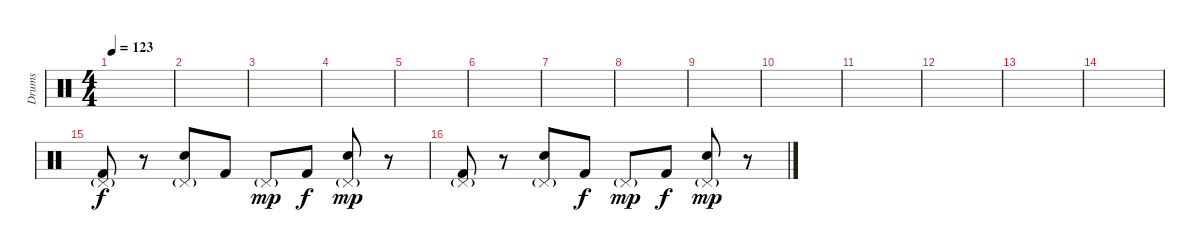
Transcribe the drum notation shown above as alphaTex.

\track ("Drums" "Drums") {instrument percussion}
\staff {score}
\articulation defaults
\ts (4 4)
\tempo 123
\clef neutral
\ks c
|
|
|
|
|
|
|
|
|
|
|
|
|
|
("Pedal Hi-Hat (hit)"{g} "Kick (hit) 2").8 r.8 ("Pedal Hi-Hat (hit)"{g} "Snare (hit) 2").8 "Kick (hit) 2".8{dy f} "Pedal Hi-Hat (hit)"{g}.8{dy mp} "Kick (hit) 2".8{dy f} ("Pedal Hi-Hat (hit)"{g} "Snare (hit) 2").8{dy mp} r.8 |
("Pedal Hi-Hat (hit)"{g} "Kick (hit) 2").8 r.8 ("Pedal Hi-Hat (hit)"{g} "Snare (hit) 2").8 "Kick (hit) 2".8{dy f} "Pedal Hi-Hat (hit)"{g}.8{dy mp} "Kick (hit) 2".8{dy f} ("Pedal Hi-Hat (hit)"{g} "Snare (hit) 2").8{dy mp} r.8
